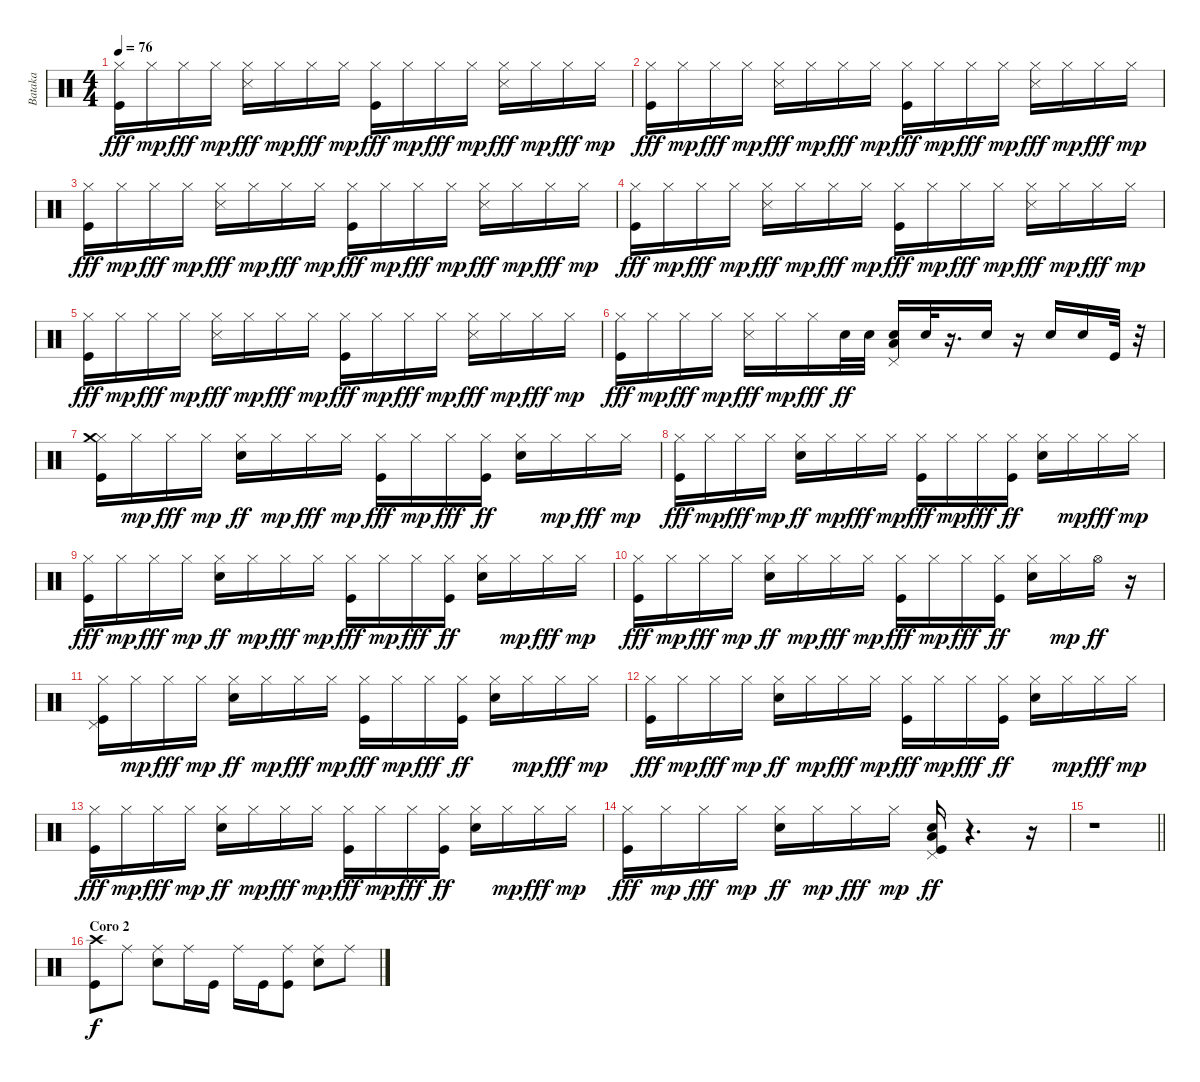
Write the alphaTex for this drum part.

\track ("Bataka" "Bataka") {instrument percussion}
\staff {score}
\articulation defaults
\ts (4 4)
\tempo 76
\clef neutral
\ks c
("Kick (hit)" "Hi-Hat (closed)").16{dy fff} "Hi-Hat (closed)".16{dy mp} "Hi-Hat (closed)".16{dy fff} "Hi-Hat (closed)".16{dy mp} ("Snare (side stick) 3" "Hi-Hat (closed)").16{dy fff} "Hi-Hat (closed)".16{dy mp} "Hi-Hat (closed)".16{dy fff} "Hi-Hat (closed)".16{dy mp} ("Kick (hit)" "Hi-Hat (closed)").16{dy fff} "Hi-Hat (closed)".16{dy mp} "Hi-Hat (closed)".16{dy fff} "Hi-Hat (closed)".16{dy mp} ("Snare (side stick) 3" "Hi-Hat (closed)").16{dy fff} "Hi-Hat (closed)".16{dy mp} "Hi-Hat (closed)".16{dy fff} "Hi-Hat (closed)".16{dy mp} |
("Kick (hit)" "Hi-Hat (closed)").16{dy fff} "Hi-Hat (closed)".16{dy mp} "Hi-Hat (closed)".16{dy fff} "Hi-Hat (closed)".16{dy mp} ("Snare (side stick) 3" "Hi-Hat (closed)").16{dy fff} "Hi-Hat (closed)".16{dy mp} "Hi-Hat (closed)".16{dy fff} "Hi-Hat (closed)".16{dy mp} ("Kick (hit)" "Hi-Hat (closed)").16{dy fff} "Hi-Hat (closed)".16{dy mp} "Hi-Hat (closed)".16{dy fff} "Hi-Hat (closed)".16{dy mp} ("Snare (side stick) 3" "Hi-Hat (closed)").16{dy fff} "Hi-Hat (closed)".16{dy mp} "Hi-Hat (closed)".16{dy fff} "Hi-Hat (closed)".16{dy mp} |
("Kick (hit)" "Hi-Hat (closed)").16{dy fff} "Hi-Hat (closed)".16{dy mp} "Hi-Hat (closed)".16{dy fff} "Hi-Hat (closed)".16{dy mp} ("Snare (side stick) 3" "Hi-Hat (closed)").16{dy fff} "Hi-Hat (closed)".16{dy mp} "Hi-Hat (closed)".16{dy fff} "Hi-Hat (closed)".16{dy mp} ("Kick (hit)" "Hi-Hat (closed)").16{dy fff} "Hi-Hat (closed)".16{dy mp} "Hi-Hat (closed)".16{dy fff} "Hi-Hat (closed)".16{dy mp} ("Snare (side stick) 3" "Hi-Hat (closed)").16{dy fff} "Hi-Hat (closed)".16{dy mp} "Hi-Hat (closed)".16{dy fff} "Hi-Hat (closed)".16{dy mp} |
("Kick (hit)" "Hi-Hat (closed)").16{dy fff} "Hi-Hat (closed)".16{dy mp} "Hi-Hat (closed)".16{dy fff} "Hi-Hat (closed)".16{dy mp} ("Snare (side stick) 3" "Hi-Hat (closed)").16{dy fff} "Hi-Hat (closed)".16{dy mp} "Hi-Hat (closed)".16{dy fff} "Hi-Hat (closed)".16{dy mp} ("Kick (hit)" "Hi-Hat (closed)").16{dy fff} "Hi-Hat (closed)".16{dy mp} "Hi-Hat (closed)".16{dy fff} "Hi-Hat (closed)".16{dy mp} ("Snare (side stick) 3" "Hi-Hat (closed)").16{dy fff} "Hi-Hat (closed)".16{dy mp} "Hi-Hat (closed)".16{dy fff} "Hi-Hat (closed)".16{dy mp} |
("Kick (hit)" "Hi-Hat (closed)").16{dy fff} "Hi-Hat (closed)".16{dy mp} "Hi-Hat (closed)".16{dy fff} "Hi-Hat (closed)".16{dy mp} ("Snare (side stick) 3" "Hi-Hat (closed)").16{dy fff} "Hi-Hat (closed)".16{dy mp} "Hi-Hat (closed)".16{dy fff} "Hi-Hat (closed)".16{dy mp} ("Kick (hit)" "Hi-Hat (closed)").16{dy fff} "Hi-Hat (closed)".16{dy mp} "Hi-Hat (closed)".16{dy fff} "Hi-Hat (closed)".16{dy mp} ("Snare (side stick) 3" "Hi-Hat (closed)").16{dy fff} "Hi-Hat (closed)".16{dy mp} "Hi-Hat (closed)".16{dy fff} "Hi-Hat (closed)".16{dy mp} |
("Kick (hit)" "Hi-Hat (closed)").16{dy fff} "Hi-Hat (closed)".16{dy mp} "Hi-Hat (closed)".16{dy fff} "Hi-Hat (closed)".16{dy mp} ("Snare (side stick) 3" "Hi-Hat (closed)").16{dy fff} "Hi-Hat (closed)".16{dy mp} "Hi-Hat (closed)".16{dy fff} "Snare (hit) 2".32{dy ff} "Snare (hit) 2".32 ("Low Floor Tom (hit)" "Pedal Hi-Hat (hit)" "Snare (hit) 2").16 "Snare (hit) 2".32 r.16{d} "Snare (hit) 2".16 r.16 "Snare (hit) 2".16 "Snare (hit) 2".16 "Kick (hit)".32 r.32 |
("Kick (hit)" "Hi-Hat (closed)" "Crash medium (hit)").16 "Hi-Hat (closed)".16{dy mp} "Hi-Hat (closed)".16{dy fff} "Hi-Hat (closed)".16{dy mp} ("Hi-Hat (closed)" "Snare (hit) 2").16{dy ff} "Hi-Hat (closed)".16{dy mp} "Hi-Hat (closed)".16{dy fff} "Hi-Hat (closed)".16{dy mp} ("Kick (hit)" "Hi-Hat (closed)").16{dy fff} "Hi-Hat (closed)".16{dy mp} "Hi-Hat (closed)".16{dy fff} ("Hi-Hat (closed)" "Kick (hit)").16{dy ff} ("Hi-Hat (closed)" "Snare (hit) 2").16 "Hi-Hat (closed)".16{dy mp} "Hi-Hat (closed)".16{dy fff} "Hi-Hat (closed)".16{dy mp} |
("Kick (hit)" "Hi-Hat (closed)").16{dy fff} "Hi-Hat (closed)".16{dy mp} "Hi-Hat (closed)".16{dy fff} "Hi-Hat (closed)".16{dy mp} ("Hi-Hat (closed)" "Snare (hit) 2").16{dy ff} "Hi-Hat (closed)".16{dy mp} "Hi-Hat (closed)".16{dy fff} "Hi-Hat (closed)".16{dy mp} ("Kick (hit)" "Hi-Hat (closed)").16{dy fff} "Hi-Hat (closed)".16{dy mp} "Hi-Hat (closed)".16{dy fff} ("Hi-Hat (closed)" "Kick (hit)").16{dy ff} ("Hi-Hat (closed)" "Snare (hit) 2").16 "Hi-Hat (closed)".16{dy mp} "Hi-Hat (closed)".16{dy fff} "Hi-Hat (closed)".16{dy mp} |
("Kick (hit)" "Hi-Hat (closed)").16{dy fff} "Hi-Hat (closed)".16{dy mp} "Hi-Hat (closed)".16{dy fff} "Hi-Hat (closed)".16{dy mp} ("Hi-Hat (closed)" "Snare (hit) 2").16{dy ff} "Hi-Hat (closed)".16{dy mp} "Hi-Hat (closed)".16{dy fff} "Hi-Hat (closed)".16{dy mp} ("Kick (hit)" "Hi-Hat (closed)").16{dy fff} "Hi-Hat (closed)".16{dy mp} "Hi-Hat (closed)".16{dy fff} ("Hi-Hat (closed)" "Kick (hit)").16{dy ff} ("Hi-Hat (closed)" "Snare (hit) 2").16 "Hi-Hat (closed)".16{dy mp} "Hi-Hat (closed)".16{dy fff} "Hi-Hat (closed)".16{dy mp} |
("Kick (hit)" "Hi-Hat (closed)").16{dy fff} "Hi-Hat (closed)".16{dy mp} "Hi-Hat (closed)".16{dy fff} "Hi-Hat (closed)".16{dy mp} ("Hi-Hat (closed)" "Snare (hit) 2").16{dy ff} "Hi-Hat (closed)".16{dy mp} "Hi-Hat (closed)".16{dy fff} "Hi-Hat (closed)".16{dy mp} ("Kick (hit)" "Hi-Hat (closed)").16{dy fff} "Hi-Hat (closed)".16{dy mp} "Hi-Hat (closed)".16{dy fff} ("Hi-Hat (closed)" "Kick (hit)").16{dy ff} ("Hi-Hat (closed)" "Snare (hit) 2").16 "Hi-Hat (closed)".16{dy mp} "Hi-Hat (open)".16{dy ff} r.16 |
("Kick (hit)" "Hi-Hat (closed)" "Pedal Hi-Hat (hit)").16 "Hi-Hat (closed)".16{dy mp} "Hi-Hat (closed)".16{dy fff} "Hi-Hat (closed)".16{dy mp} ("Hi-Hat (closed)" "Snare (hit) 2").16{dy ff} "Hi-Hat (closed)".16{dy mp} "Hi-Hat (closed)".16{dy fff} "Hi-Hat (closed)".16{dy mp} ("Kick (hit)" "Hi-Hat (closed)").16{dy fff} "Hi-Hat (closed)".16{dy mp} "Hi-Hat (closed)".16{dy fff} ("Hi-Hat (closed)" "Kick (hit)").16{dy ff} ("Hi-Hat (closed)" "Snare (hit) 2").16 "Hi-Hat (closed)".16{dy mp} "Hi-Hat (closed)".16{dy fff} "Hi-Hat (closed)".16{dy mp} |
("Kick (hit)" "Hi-Hat (closed)").16{dy fff} "Hi-Hat (closed)".16{dy mp} "Hi-Hat (closed)".16{dy fff} "Hi-Hat (closed)".16{dy mp} ("Hi-Hat (closed)" "Snare (hit) 2").16{dy ff} "Hi-Hat (closed)".16{dy mp} "Hi-Hat (closed)".16{dy fff} "Hi-Hat (closed)".16{dy mp} ("Kick (hit)" "Hi-Hat (closed)").16{dy fff} "Hi-Hat (closed)".16{dy mp} "Hi-Hat (closed)".16{dy fff} ("Hi-Hat (closed)" "Kick (hit)").16{dy ff} ("Hi-Hat (closed)" "Snare (hit) 2").16 "Hi-Hat (closed)".16{dy mp} "Hi-Hat (closed)".16{dy fff} "Hi-Hat (closed)".16{dy mp} |
("Kick (hit)" "Hi-Hat (closed)").16{dy fff} "Hi-Hat (closed)".16{dy mp} "Hi-Hat (closed)".16{dy fff} "Hi-Hat (closed)".16{dy mp} ("Hi-Hat (closed)" "Snare (hit) 2").16{dy ff} "Hi-Hat (closed)".16{dy mp} "Hi-Hat (closed)".16{dy fff} "Hi-Hat (closed)".16{dy mp} ("Kick (hit)" "Hi-Hat (closed)").16{dy fff} "Hi-Hat (closed)".16{dy mp} "Hi-Hat (closed)".16{dy fff} ("Hi-Hat (closed)" "Kick (hit)").16{dy ff} ("Hi-Hat (closed)" "Snare (hit) 2").16 "Hi-Hat (closed)".16{dy mp} "Hi-Hat (closed)".16{dy fff} "Hi-Hat (closed)".16{dy mp} |
("Kick (hit)" "Hi-Hat (closed)").16{dy fff} "Hi-Hat (closed)".16{dy mp} "Hi-Hat (closed)".16{dy fff} "Hi-Hat (closed)".16{dy mp} ("Hi-Hat (closed)" "Snare (hit) 2").16{dy ff} "Hi-Hat (closed)".16{dy mp} "Hi-Hat (closed)".16{dy fff} "Hi-Hat (closed)".16{dy mp} ("Kick (hit)" "Pedal Hi-Hat (hit)" "Snare (hit) 2" "Low Floor Tom (hit)").16{dy ff} r.4{d} r.16 |
\barLineRight lightlight
r.1 |
\section ("" "Coro 2")
("Crash high (hit)" "Kick (hit)").8{dy f} "Ride (middle)".8 ("Ride (middle)" "Snare (hit) 2").8 "Ride (middle)".16 "Kick (hit)".16 "Ride (middle)".16 "Kick (hit)".16 ("Ride (middle)" "Kick (hit)").8 ("Ride (middle)" "Snare (hit) 2").8 "Ride (middle)".8
